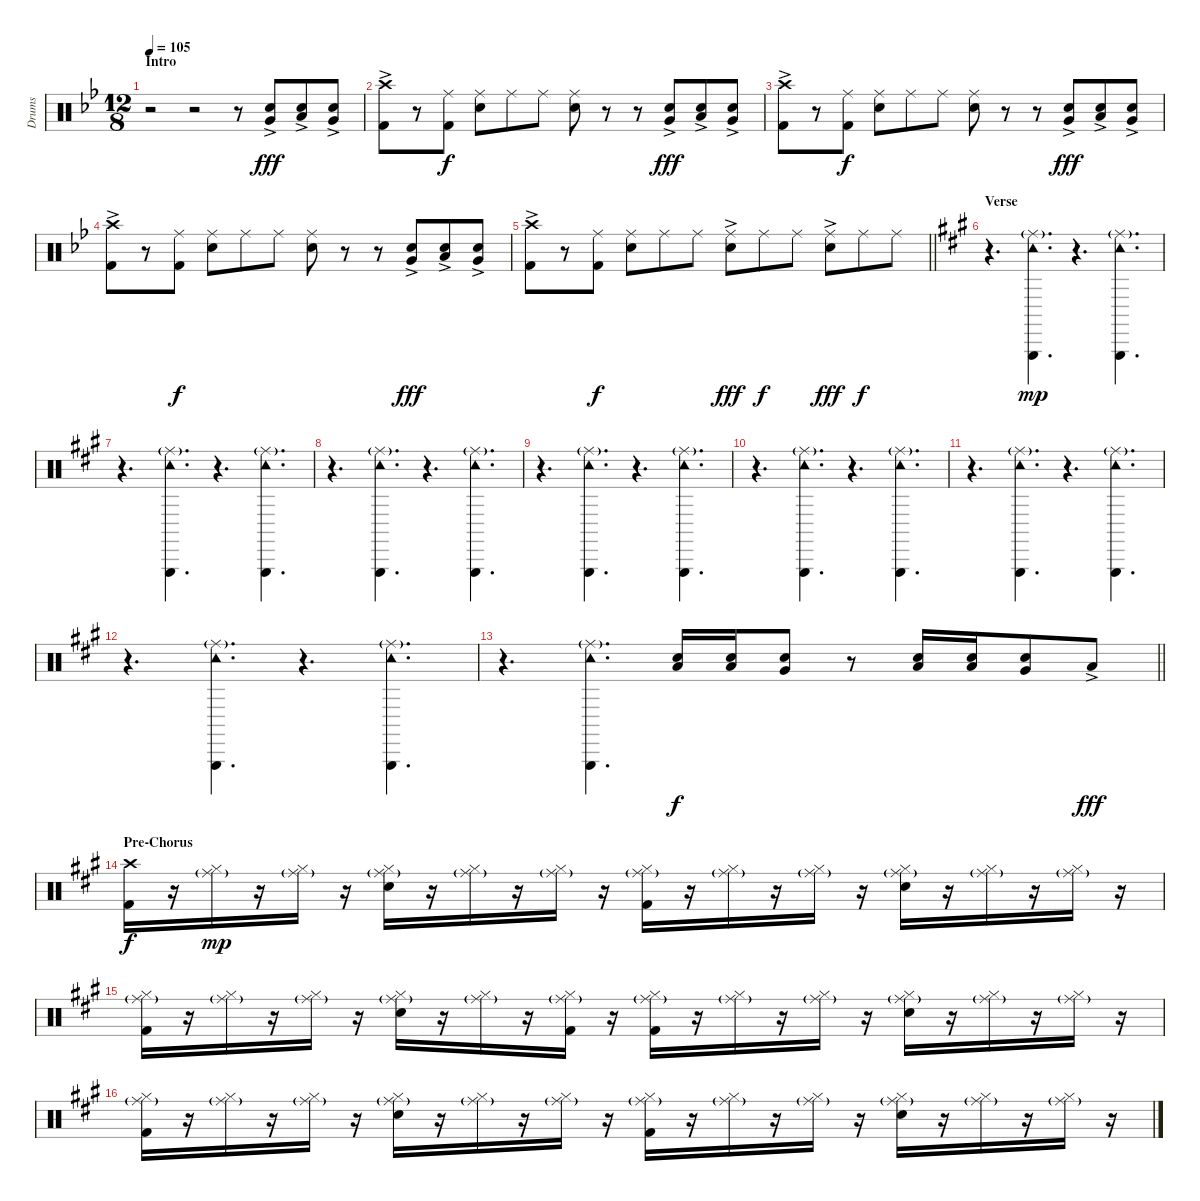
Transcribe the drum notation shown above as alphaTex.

\track ("Drums" "Drums") {instrument percussion}
\staff {score}
\articulation defaults
\ts (12 8)
\section ("" "Intro")
\tempo 105
\clef neutral
\ks bb
r.2{dy fff} r.2 r.8 ("Very Low Tom (hit)"{ac} "Snare (hit) 2"{ac}).8 ("Low Tom (hit)"{ac} "Snare (hit) 2"{ac}).8 ("Very Low Tom (hit)"{ac} "Snare (hit) 2"{ac}).8 |
("Crash high (hit)"{ac} "Kick (hit) 2"{ac}).8 r.8 ("Ride (middle)" "Kick (hit) 2").8{dy f} ("Ride (middle)" "Snare (hit) 2").8 "Ride (middle)".8 "Ride (middle)".8 ("Ride (middle)" "Snare (hit) 2").8 r.8 r.8 ("Very Low Tom (hit)"{ac} "Snare (hit) 2"{ac}).8{dy fff} ("Low Tom (hit)"{ac} "Snare (hit) 2"{ac}).8 ("Very Low Tom (hit)"{ac} "Snare (hit) 2"{ac}).8 |
("Crash high (hit)"{ac} "Kick (hit) 2"{ac}).8 r.8 ("Ride (middle)" "Kick (hit) 2").8{dy f} ("Ride (middle)" "Snare (hit) 2").8 "Ride (middle)".8 "Ride (middle)".8 ("Ride (middle)" "Snare (hit) 2").8 r.8 r.8 ("Very Low Tom (hit)"{ac} "Snare (hit) 2"{ac}).8{dy fff} ("Low Tom (hit)"{ac} "Snare (hit) 2"{ac}).8 ("Very Low Tom (hit)"{ac} "Snare (hit) 2"{ac}).8 |
("Crash high (hit)"{ac} "Kick (hit) 2"{ac}).8 r.8 ("Ride (middle)" "Kick (hit) 2").8{dy f} ("Ride (middle)" "Snare (hit) 2").8 "Ride (middle)".8 "Ride (middle)".8 ("Ride (middle)" "Snare (hit) 2").8 r.8 r.8 ("Very Low Tom (hit)"{ac} "Snare (hit) 2"{ac}).8{dy fff} ("Low Tom (hit)"{ac} "Snare (hit) 2"{ac}).8 ("Very Low Tom (hit)"{ac} "Snare (hit) 2"{ac}).8 |
\barLineRight lightlight
("Crash high (hit)"{ac} "Kick (hit) 2"{ac}).8 r.8 ("Ride (middle)" "Kick (hit) 2").8{dy f} ("Ride (middle)" "Snare (hit) 2").8 "Ride (middle)".8 "Ride (middle)".8 ("Ride (middle)" "Snare (hit) 2"{ac}).8{dy fff} "Ride (middle)".8{dy f} "Ride (middle)".8 ("Ride (middle)" "Snare (hit) 2"{ac}).8{dy fff} "Ride (middle)".8{dy f} "Ride (middle)".8 |
\section ("" "Verse")
\ks a
r.4{d} ("Triangle (hit)" "Tambourine (hit)" "Ride (middle)"{g}).4{d dy mp} r.4{d} ("Triangle (hit)" "Tambourine (hit)" "Ride (middle)"{g}).4{d} |
r.4{d} ("Triangle (hit)" "Tambourine (hit)" "Ride (middle)"{g}).4{d} r.4{d} ("Triangle (hit)" "Tambourine (hit)" "Ride (middle)"{g}).4{d} |
r.4{d} ("Triangle (hit)" "Tambourine (hit)" "Ride (middle)"{g}).4{d} r.4{d} ("Triangle (hit)" "Tambourine (hit)" "Ride (middle)"{g}).4{d} |
r.4{d} ("Triangle (hit)" "Tambourine (hit)" "Ride (middle)"{g}).4{d} r.4{d} ("Triangle (hit)" "Tambourine (hit)" "Ride (middle)"{g}).4{d} |
r.4{d} ("Triangle (hit)" "Tambourine (hit)" "Ride (middle)"{g}).4{d} r.4{d} ("Triangle (hit)" "Tambourine (hit)" "Ride (middle)"{g}).4{d} |
r.4{d} ("Triangle (hit)" "Tambourine (hit)" "Ride (middle)"{g}).4{d} r.4{d} ("Triangle (hit)" "Tambourine (hit)" "Ride (middle)"{g}).4{d} |
r.4{d} ("Triangle (hit)" "Tambourine (hit)" "Ride (middle)"{g}).4{d} r.4{d} ("Triangle (hit)" "Tambourine (hit)" "Ride (middle)"{g}).4{d} |
\barLineRight lightlight
r.4{d} ("Triangle (hit)" "Tambourine (hit)" "Ride (middle)"{g}).4{d} ("Low Tom (hit)" "Snare (hit) 2").16{dy f} ("Low Tom (hit)" "Snare (hit) 2").16 ("Very Low Tom (hit)" "Snare (hit) 2").8 r.8 ("Low Tom (hit)" "Snare (hit) 2").16 ("Low Tom (hit)" "Snare (hit) 2").16 ("Very Low Tom (hit)" "Snare (hit) 2").8 "Low Floor Tom (hit)"{ac}.8{dy fff} |
\section ("" "Pre-Chorus")
("Crash high (hit)" "Kick (hit) 2").16{dy f} r.16 ("Hi-Hat (closed)" "Ride (middle)"{g}).16{dy mp} r.16 ("Hi-Hat (closed)" "Ride (middle)"{g}).16 r.16 ("Hi-Hat (closed)" "Ride (middle)"{g} "Snare (hit) 2").16 r.16 ("Hi-Hat (closed)" "Ride (middle)"{g}).16 r.16 ("Hi-Hat (closed)" "Ride (middle)"{g}).16 r.16 ("Hi-Hat (closed)" "Ride (middle)"{g} "Kick (hit) 2").16 r.16 ("Hi-Hat (closed)" "Ride (middle)"{g}).16 r.16 ("Hi-Hat (closed)" "Ride (middle)"{g}).16 r.16 ("Hi-Hat (closed)" "Ride (middle)"{g} "Snare (hit) 2").16 r.16 ("Hi-Hat (closed)" "Ride (middle)"{g}).16 r.16 ("Hi-Hat (closed)" "Ride (middle)"{g}).16 r.16 |
("Hi-Hat (closed)" "Ride (middle)"{g} "Kick (hit) 2").16 r.16 ("Hi-Hat (closed)" "Ride (middle)"{g}).16 r.16 ("Hi-Hat (closed)" "Ride (middle)"{g}).16 r.16 ("Hi-Hat (closed)" "Ride (middle)"{g} "Snare (hit) 2").16 r.16 ("Hi-Hat (closed)" "Ride (middle)"{g}).16 r.16 ("Hi-Hat (closed)" "Ride (middle)"{g} "Kick (hit) 2").16 r.16 ("Hi-Hat (closed)" "Ride (middle)"{g} "Kick (hit) 2").16 r.16 ("Hi-Hat (closed)" "Ride (middle)"{g}).16 r.16 ("Hi-Hat (closed)" "Ride (middle)"{g}).16 r.16 ("Hi-Hat (closed)" "Ride (middle)"{g} "Snare (hit) 2").16 r.16 ("Hi-Hat (closed)" "Ride (middle)"{g}).16 r.16 ("Hi-Hat (closed)" "Ride (middle)"{g}).16 r.16 |
("Hi-Hat (closed)" "Ride (middle)"{g} "Kick (hit) 2").16 r.16 ("Hi-Hat (closed)" "Ride (middle)"{g}).16 r.16 ("Hi-Hat (closed)" "Ride (middle)"{g}).16 r.16 ("Hi-Hat (closed)" "Ride (middle)"{g} "Snare (hit) 2").16 r.16 ("Hi-Hat (closed)" "Ride (middle)"{g}).16 r.16 ("Hi-Hat (closed)" "Ride (middle)"{g}).16 r.16 ("Hi-Hat (closed)" "Ride (middle)"{g} "Kick (hit) 2").16 r.16 ("Hi-Hat (closed)" "Ride (middle)"{g}).16 r.16 ("Hi-Hat (closed)" "Ride (middle)"{g}).16 r.16 ("Hi-Hat (closed)" "Ride (middle)"{g} "Snare (hit) 2").16 r.16 ("Hi-Hat (closed)" "Ride (middle)"{g}).16 r.16 ("Hi-Hat (closed)" "Ride (middle)"{g}).16 r.16
